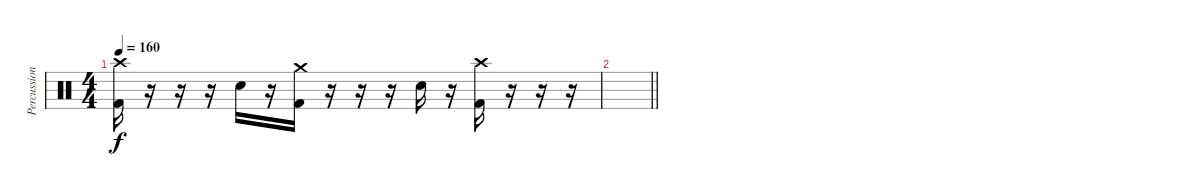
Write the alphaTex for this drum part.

\track ("Percussion" "Percussion") {instrument percussion}
\staff {score}
\articulation defaults
\ts (4 4)
\tempo 160
\clef neutral
\ks c
("Crash high (hit)" "Kick (hit) 2").16{dy f} r.16 r.16 r.16 "Snare (hit) 2".16 r.16 ("Crash medium (hit)" "Kick (hit) 2").16 r.16 r.16 r.16 "Snare (hit) 2".16 r.16 ("Crash high (hit)" "Kick (hit) 2").16 r.16 r.16 r.16 |
\barLineRight lightlight
